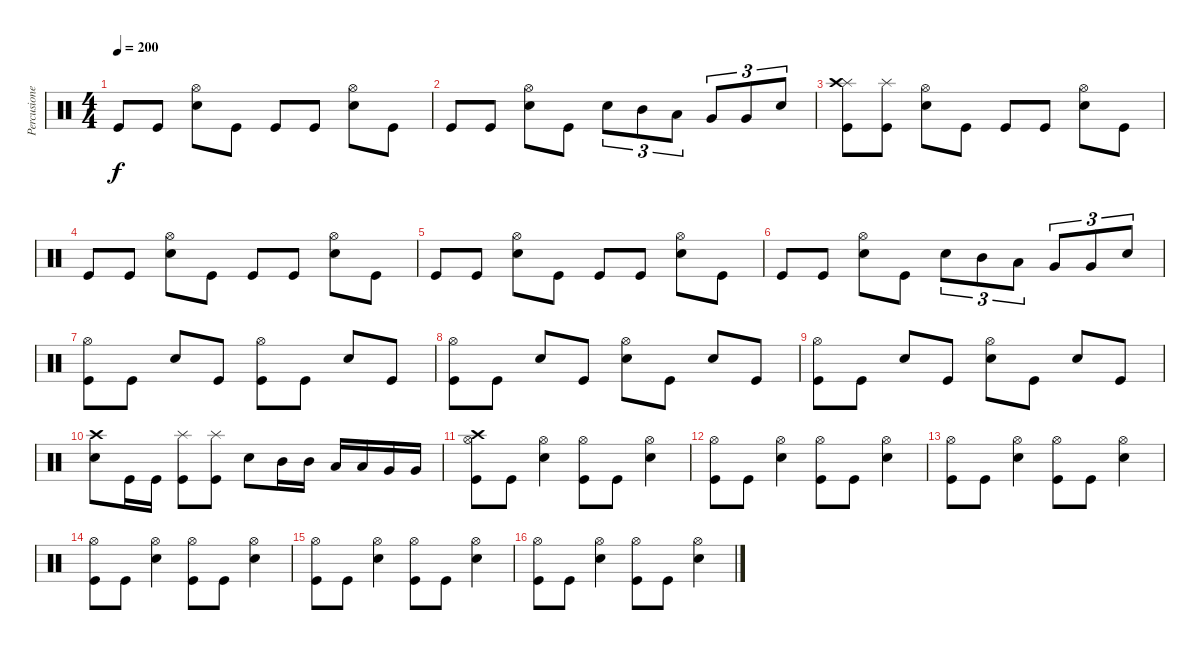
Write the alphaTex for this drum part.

\track ("Percusiones" "Percusione") {instrument percussion}
\staff {score}
\articulation defaults
\ts (4 4)
\tempo 200
\clef neutral
\ks c "Kick (hit)".8{dy f} "Kick (hit)".8
("Hi-Hat (open)" "Electric Snare (hit)").8 "Kick (hit)".8 "Kick (hit)".8 "Kick (hit)".8 ("Hi-Hat (open)" "Electric Snare (hit)").8 "Kick (hit)".8 |
"Kick (hit)".8 "Kick (hit)".8 ("Hi-Hat (open)" "Electric Snare (hit)").8 "Kick (hit)".8 "Electric Snare (hit)".8{tu (3 2)} "Mid Tom (hit)".8{tu (3 2)} "Low Tom (hit)".8{tu (3 2)} "Very Low Tom (hit)".8{tu (3 2)} "Very Low Tom (hit)".8{tu (3 2)} "Electric Snare (hit)".8{tu (3 2)} |
("Splash (hit)" "Kick (hit)" "Crash high (hit)").8 ("Splash (hit)" "Kick (hit)").8 ("Hi-Hat (open)" "Electric Snare (hit)").8 "Kick (hit)".8 "Kick (hit)".8 "Kick (hit)".8 ("Hi-Hat (open)" "Electric Snare (hit)").8 "Kick (hit)".8 |
"Kick (hit)".8 "Kick (hit)".8 ("Hi-Hat (open)" "Electric Snare (hit)").8 "Kick (hit)".8 "Kick (hit)".8 "Kick (hit)".8 ("Hi-Hat (open)" "Electric Snare (hit)").8 "Kick (hit)".8 |
"Kick (hit)".8 "Kick (hit)".8 ("Hi-Hat (open)" "Electric Snare (hit)").8 "Kick (hit)".8 "Kick (hit)".8 "Kick (hit)".8 ("Hi-Hat (open)" "Electric Snare (hit)").8 "Kick (hit)".8 |
"Kick (hit)".8 "Kick (hit)".8 ("Hi-Hat (open)" "Electric Snare (hit)").8 "Kick (hit)".8 "Electric Snare (hit)".8{tu (3 2)} "Mid Tom (hit)".8{tu (3 2)} "Low Tom (hit)".8{tu (3 2)} "Very Low Tom (hit)".8{tu (3 2)} "Very Low Tom (hit)".8{tu (3 2)} "Electric Snare (hit)".8{tu (3 2)} |
("Hi-Hat (open)" "Kick (hit)").8 "Kick (hit)".8 "Electric Snare (hit)".8 "Kick (hit)".8 ("Hi-Hat (open)" "Kick (hit)").8 "Kick (hit)".8 "Electric Snare (hit)".8 "Kick (hit)".8 |
("Hi-Hat (open)" "Kick (hit)").8 "Kick (hit)".8 "Electric Snare (hit)".8 "Kick (hit)".8 ("Hi-Hat (open)" "Electric Snare (hit)").8 "Kick (hit)".8 "Electric Snare (hit)".8 "Kick (hit)".8 |
("Hi-Hat (open)" "Kick (hit)").8 "Kick (hit)".8 "Electric Snare (hit)".8 "Kick (hit)".8 ("Electric Snare (hit)" "Hi-Hat (open)").8 "Kick (hit)".8 "Electric Snare (hit)".8 "Kick (hit)".8 |
("Crash high (hit)" "Electric Snare (hit)").8 "Kick (hit)".16 "Kick (hit)".16 ("Splash (hit)" "Kick (hit)").8 ("Splash (hit)" "Kick (hit)").8 "Electric Snare (hit)".8 "Mid Tom (hit)".16 "Mid Tom (hit)".16 "Low Tom (hit)".16 "Low Tom (hit)".16 "Very Low Tom (hit)".16 "Very Low Tom (hit)".16 |
("Crash high (hit)" "Kick (hit)" "Hi-Hat (open)").8 "Kick (hit)".8 ("Electric Snare (hit)" "Hi-Hat (open)").4 ("Hi-Hat (open)" "Kick (hit)").8 "Kick (hit)".8 ("Electric Snare (hit)" "Hi-Hat (open)").4 |
("Kick (hit)" "Hi-Hat (open)").8 "Kick (hit)".8 ("Electric Snare (hit)" "Hi-Hat (open)").4 ("Hi-Hat (open)" "Kick (hit)").8 "Kick (hit)".8 ("Electric Snare (hit)" "Hi-Hat (open)").4 |
("Kick (hit)" "Hi-Hat (open)").8 "Kick (hit)".8 ("Electric Snare (hit)" "Hi-Hat (open)").4 ("Hi-Hat (open)" "Kick (hit)").8 "Kick (hit)".8 ("Electric Snare (hit)" "Hi-Hat (open)").4 |
("Kick (hit)" "Hi-Hat (open)").8 "Kick (hit)".8 ("Electric Snare (hit)" "Hi-Hat (open)").4 ("Hi-Hat (open)" "Kick (hit)").8 "Kick (hit)".8 ("Electric Snare (hit)" "Hi-Hat (open)").4 |
("Kick (hit)" "Hi-Hat (open)").8 "Kick (hit)".8 ("Electric Snare (hit)" "Hi-Hat (open)").4 ("Kick (hit)" "Hi-Hat (open)").8 "Kick (hit)".8 ("Electric Snare (hit)" "Hi-Hat (open)").4 |
("Kick (hit)" "Hi-Hat (open)").8 "Kick (hit)".8 ("Electric Snare (hit)" "Hi-Hat (open)").4 ("Kick (hit)" "Hi-Hat (open)").8 "Kick (hit)".8 ("Electric Snare (hit)" "Hi-Hat (open)").4
